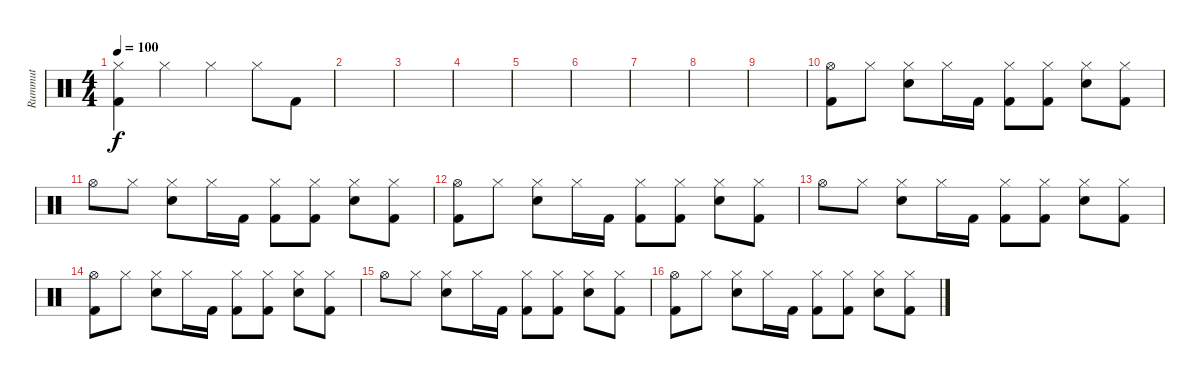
\track ("Rummut" "Rummut") {instrument percussion}
\staff {score}
\articulation defaults
\ts (4 4)
\tempo 100
\clef neutral
\ks c
("Hi-Hat (closed)" "Kick (hit) 2").4{dy f} "Hi-Hat (closed)".4 "Hi-Hat (closed)".4 "Hi-Hat (closed)".8 "Kick (hit) 2".8 |
|
|
|
|
|
|
|
|
("Hi-Hat (open)" "Kick (hit) 2").8 "Hi-Hat (closed)".8 ("Hi-Hat (closed)" "Snare (hit) 2").8 "Hi-Hat (closed)".16 "Kick (hit) 2".16 ("Hi-Hat (closed)" "Kick (hit) 2").8 ("Hi-Hat (closed)" "Kick (hit) 2").8 ("Hi-Hat (closed)" "Snare (hit) 2").8 ("Hi-Hat (closed)" "Kick (hit) 2").8 |
"Hi-Hat (open)".8 "Hi-Hat (closed)".8 ("Hi-Hat (closed)" "Snare (hit) 2").8 "Hi-Hat (closed)".16 "Kick (hit) 2".16 ("Hi-Hat (closed)" "Kick (hit) 2").8 ("Hi-Hat (closed)" "Kick (hit) 2").8 ("Hi-Hat (closed)" "Snare (hit) 2").8 ("Hi-Hat (closed)" "Kick (hit) 2").8 |
("Hi-Hat (open)" "Kick (hit) 2").8 "Hi-Hat (closed)".8 ("Hi-Hat (closed)" "Snare (hit) 2").8 "Hi-Hat (closed)".16 "Kick (hit) 2".16 ("Hi-Hat (closed)" "Kick (hit) 2").8 ("Hi-Hat (closed)" "Kick (hit) 2").8 ("Hi-Hat (closed)" "Snare (hit) 2").8 ("Hi-Hat (closed)" "Kick (hit) 2").8 |
"Hi-Hat (open)".8 "Hi-Hat (closed)".8 ("Hi-Hat (closed)" "Snare (hit) 2").8 "Hi-Hat (closed)".16 "Kick (hit) 2".16 ("Hi-Hat (closed)" "Kick (hit) 2").8 ("Hi-Hat (closed)" "Kick (hit) 2").8 ("Hi-Hat (closed)" "Snare (hit) 2").8 ("Hi-Hat (closed)" "Kick (hit) 2").8 |
("Hi-Hat (open)" "Kick (hit) 2").8 "Hi-Hat (closed)".8 ("Hi-Hat (closed)" "Snare (hit) 2").8 "Hi-Hat (closed)".16 "Kick (hit) 2".16 ("Hi-Hat (closed)" "Kick (hit) 2").8 ("Hi-Hat (closed)" "Kick (hit) 2").8 ("Hi-Hat (closed)" "Snare (hit) 2").8 ("Hi-Hat (closed)" "Kick (hit) 2").8 |
"Hi-Hat (open)".8 "Hi-Hat (closed)".8 ("Hi-Hat (closed)" "Snare (hit) 2").8 "Hi-Hat (closed)".16 "Kick (hit) 2".16 ("Hi-Hat (closed)" "Kick (hit) 2").8 ("Hi-Hat (closed)" "Kick (hit) 2").8 ("Hi-Hat (closed)" "Snare (hit) 2").8 ("Hi-Hat (closed)" "Kick (hit) 2").8 |
("Hi-Hat (open)" "Kick (hit) 2").8 "Hi-Hat (closed)".8 ("Hi-Hat (closed)" "Snare (hit) 2").8 "Hi-Hat (closed)".16 "Kick (hit) 2".16 ("Hi-Hat (closed)" "Kick (hit) 2").8 ("Hi-Hat (closed)" "Kick (hit) 2").8 ("Hi-Hat (closed)" "Snare (hit) 2").8 ("Hi-Hat (closed)" "Kick (hit) 2").8
